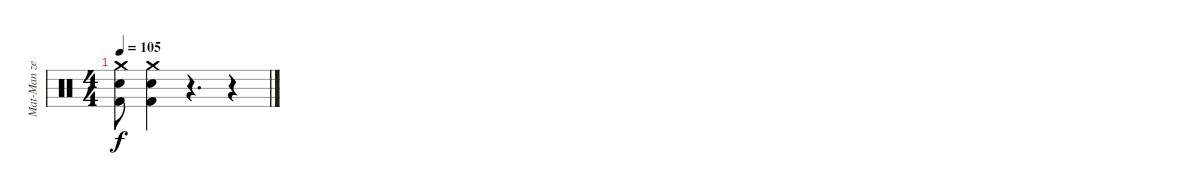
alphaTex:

\track ("Mat-Man ze defract" "Mat-Man ze") {instrument percussion}
\staff {score}
\articulation defaults
\ts (4 4)
\tempo 105
\clef neutral
\ks c
("Crash medium (hit)" "Snare (hit) 2" "Kick (hit) 2").8{dy f} ("Crash medium (hit)" "Snare (hit) 2" "Kick (hit) 2").4 r.4{d} r.4
